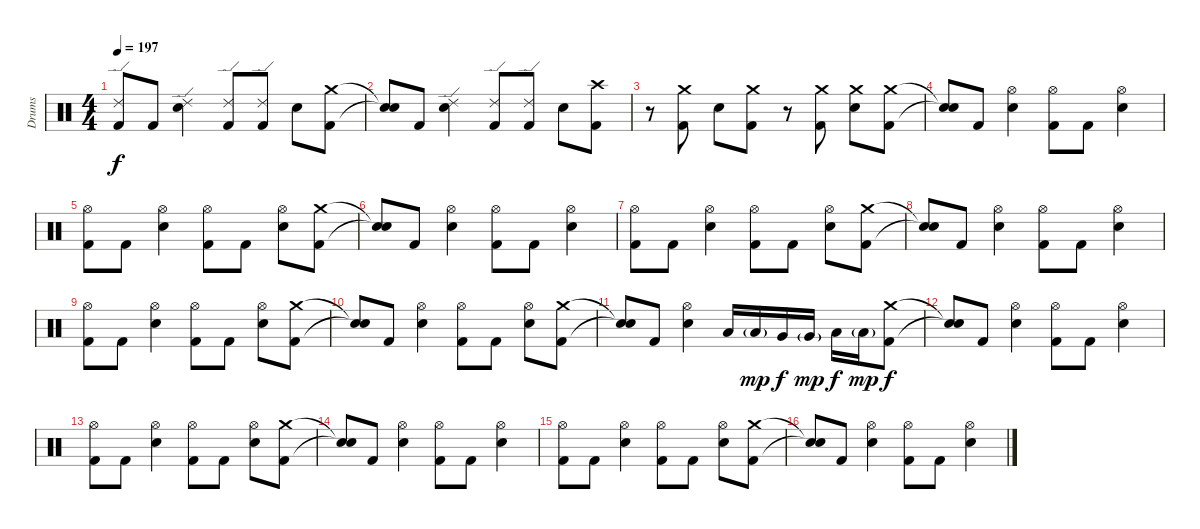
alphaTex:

\track ("Drums" "Drums") {instrument percussion}
\staff {score}
\articulation defaults
\ts (4 4)
\tempo 197
\clef neutral
\ks c
("Ride (edge) 2" "Kick (hit) 2").8{dy f} "Kick (hit) 2".8 ("Ride (edge) 2" "Electric Snare (hit)").4 ("Ride (edge) 2" "Kick (hit) 2").8 ("Ride (edge) 2" "Kick (hit) 2").8 "Electric Snare (hit)".8 ("Crash medium (hit)" "Kick (hit) 2").8 |
("Snare (hit)"{t} "Snare (hit)"{t}).8 "Kick (hit) 2".8 ("Ride (edge) 2" "Electric Snare (hit)").4 ("Ride (edge) 2" "Kick (hit) 2").8 ("Ride (edge) 2" "Kick (hit) 2").8 "Electric Snare (hit)".8 ("Crash high (hit)" "Kick (hit) 2").8 |
r.8 ("Crash medium (hit)" "Kick (hit) 2").8 "Electric Snare (hit)".8 ("Crash medium (hit)" "Kick (hit) 2").8 r.8 ("Crash medium (hit)" "Kick (hit) 2").8 ("Crash medium (hit)" "Electric Snare (hit)").8 ("Crash medium (hit)" "Kick (hit) 2").8 |
\section ("" "")
("Snare (hit)"{t} "Snare (hit)"{t}).8 "Kick (hit) 2".8 ("Hi-Hat (open)" "Electric Snare (hit)").4 ("Hi-Hat (open)" "Kick (hit) 2").8 "Kick (hit) 2".8 ("Hi-Hat (open)" "Electric Snare (hit)").4 |
("Hi-Hat (open)" "Kick (hit) 2").8 "Kick (hit) 2".8 ("Hi-Hat (open)" "Electric Snare (hit)").4 ("Hi-Hat (open)" "Kick (hit) 2").8 "Kick (hit) 2".8 ("Hi-Hat (open)" "Electric Snare (hit)").8 ("Crash medium (hit)" "Kick (hit) 2").8 |
("Snare (hit)"{t} "Snare (hit)"{t}).8 "Kick (hit) 2".8 ("Hi-Hat (open)" "Electric Snare (hit)").4 ("Hi-Hat (open)" "Kick (hit) 2").8 "Kick (hit) 2".8 ("Hi-Hat (open)" "Electric Snare (hit)").4 |
("Hi-Hat (open)" "Kick (hit) 2").8 "Kick (hit) 2".8 ("Hi-Hat (open)" "Electric Snare (hit)").4 ("Hi-Hat (open)" "Kick (hit) 2").8 "Kick (hit) 2".8 ("Hi-Hat (open)" "Electric Snare (hit)").8 ("Crash medium (hit)" "Kick (hit) 2").8 |
("Snare (hit)"{t} "Snare (hit)"{t}).8 "Kick (hit) 2".8 ("Hi-Hat (open)" "Electric Snare (hit)").4 ("Hi-Hat (open)" "Kick (hit) 2").8 "Kick (hit) 2".8 ("Hi-Hat (open)" "Electric Snare (hit)").4 |
("Hi-Hat (open)" "Kick (hit) 2").8 "Kick (hit) 2".8 ("Hi-Hat (open)" "Electric Snare (hit)").4 ("Hi-Hat (open)" "Kick (hit) 2").8 "Kick (hit) 2".8 ("Hi-Hat (open)" "Electric Snare (hit)").8 ("Crash medium (hit)" "Kick (hit) 2").8 |
("Snare (hit)"{t} "Snare (hit)"{t}).8 "Kick (hit) 2".8 ("Hi-Hat (open)" "Electric Snare (hit)").4 ("Hi-Hat (open)" "Kick (hit) 2").8 "Kick (hit) 2".8 ("Hi-Hat (open)" "Electric Snare (hit)").8 ("Crash medium (hit)" "Kick (hit) 2").8 |
\section ("" "")
("Snare (hit)"{t} "Snare (hit)"{t}).8 "Kick (hit) 2".8 ("Hi-Hat (open)" "Electric Snare (hit)").4 "Low Tom (hit)".16 "Low Tom (hit)"{g}.16{dy mp} "Very Low Tom (hit)".16{dy f} "Very Low Tom (hit)"{g}.16{dy mp} "Low Floor Tom (hit)".16{dy f} "Low Floor Tom (hit)"{g}.16{dy mp} ("Crash medium (hit)" "Kick (hit) 2").8{dy f} |
("Snare (hit)"{t} "Snare (hit)"{t}).8 "Kick (hit) 2".8 ("Hi-Hat (open)" "Electric Snare (hit)").4 ("Hi-Hat (open)" "Kick (hit) 2").8 "Kick (hit) 2".8 ("Hi-Hat (open)" "Electric Snare (hit)").4 |
("Hi-Hat (open)" "Kick (hit) 2").8 "Kick (hit) 2".8 ("Hi-Hat (open)" "Electric Snare (hit)").4 ("Hi-Hat (open)" "Kick (hit) 2").8 "Kick (hit) 2".8 ("Hi-Hat (open)" "Electric Snare (hit)").8 ("Crash medium (hit)" "Kick (hit) 2").8 |
("Snare (hit)"{t} "Snare (hit)"{t}).8 "Kick (hit) 2".8 ("Hi-Hat (open)" "Electric Snare (hit)").4 ("Hi-Hat (open)" "Kick (hit) 2").8 "Kick (hit) 2".8 ("Hi-Hat (open)" "Electric Snare (hit)").4 |
("Hi-Hat (open)" "Kick (hit) 2").8 "Kick (hit) 2".8 ("Hi-Hat (open)" "Electric Snare (hit)").4 ("Hi-Hat (open)" "Kick (hit) 2").8 "Kick (hit) 2".8 ("Hi-Hat (open)" "Electric Snare (hit)").8 ("Crash medium (hit)" "Kick (hit) 2").8 |
("Snare (hit)"{t} "Snare (hit)"{t}).8 "Kick (hit) 2".8 ("Hi-Hat (open)" "Electric Snare (hit)").4 ("Hi-Hat (open)" "Kick (hit) 2").8 "Kick (hit) 2".8 ("Hi-Hat (open)" "Electric Snare (hit)").4
